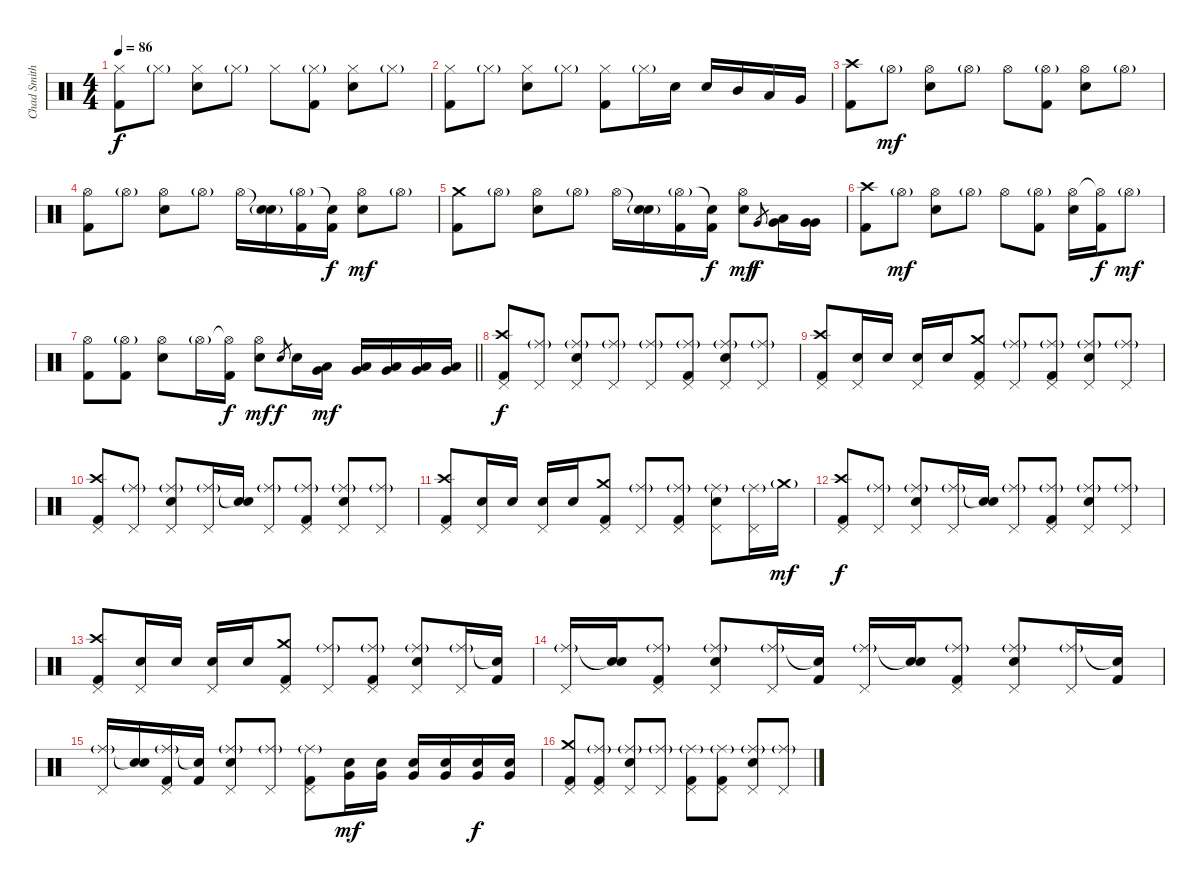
\track ("Chad Smith" "Chad Smith") {instrument percussion}
\staff {score}
\articulation defaults
\ts (4 4)
\tempo 86
\clef neutral
\ks c
("Hi-Hat (closed)" "Kick (hit) 2").8{dy f} "Hi-Hat (closed)"{g}.8 ("Hi-Hat (closed)" "Electric Snare (hit)").8 "Hi-Hat (closed)"{g}.8 "Hi-Hat (closed)".8 ("Hi-Hat (closed)"{g} "Kick (hit) 2").8 ("Hi-Hat (closed)" "Electric Snare (hit)").8 "Hi-Hat (closed)"{g}.8 |
("Hi-Hat (closed)" "Kick (hit) 2").8 "Hi-Hat (closed)"{g}.8 ("Hi-Hat (closed)" "Electric Snare (hit)").8 "Hi-Hat (closed)"{g}.8 ("Hi-Hat (closed)" "Kick (hit) 2").8 "Hi-Hat (closed)"{g}.16 "Electric Snare (hit)".16 "Electric Snare (hit)".16 "Mid Tom (hit)".16 "Low Tom (hit)".16 "Very Low Tom (hit)".16 |
("Crash high (hit)" "Kick (hit) 2").8 "Hi-Hat (open)"{g}.8{dy mf} ("Hi-Hat (open)" "Electric Snare (hit)").8 "Hi-Hat (open)"{g}.8 "Hi-Hat (open)".8 ("Hi-Hat (open)"{g} "Kick (hit) 2").8 ("Hi-Hat (open)" "Electric Snare (hit)").8 "Hi-Hat (open)"{g}.8 |
("Hi-Hat (open)" "Kick (hit) 2").8 "Hi-Hat (open)"{g}.8 ("Hi-Hat (open)" "Electric Snare (hit)").8 "Hi-Hat (open)"{g}.8 "Hi-Hat (open)".16 ("Snare (hit)"{t} "Electric Snare (hit)"{g}).16 ("Hi-Hat (open)"{g} "Kick (hit) 2").16 ("Snare (hit)"{t} "Kick (hit) 2").16{dy f} ("Hi-Hat (open)" "Electric Snare (hit)").8{dy mf} "Hi-Hat (open)"{g}.8 |
("Crash medium (hit)" "Kick (hit) 2").8 "Hi-Hat (open)"{g}.8 ("Hi-Hat (open)" "Electric Snare (hit)").8 "Hi-Hat (open)"{g}.8 "Hi-Hat (open)".16 ("Snare (hit)"{t} "Electric Snare (hit)"{g}).16 ("Hi-Hat (open)"{g} "Kick (hit) 2").16 ("Snare (hit)"{t} "Kick (hit) 2").16{dy f} ("Hi-Hat (open)" "Electric Snare (hit)").8{dy mf} "Very Low Tom (hit)".8{gr dy f} ("Very Low Tom (hit)" "Low Tom (hit)").16 ("Very Low Tom (hit)" "Very Low Tom (hit)").16 |
("Crash high (hit)" "Kick (hit) 2").8 "Hi-Hat (open)"{g}.8{dy mf} ("Hi-Hat (open)" "Electric Snare (hit)").8 "Hi-Hat (open)"{g}.8 "Hi-Hat (open)".8 ("Hi-Hat (open)"{g} "Kick (hit) 2").8 ("Hi-Hat (open)" "Electric Snare (hit)").16 ("Hi-Hat (open)"{t} "Kick (hit) 2").16{dy f} "Hi-Hat (open)"{g}.8{dy mf} |
\barLineRight lightlight
("Hi-Hat (open)" "Kick (hit) 2").8 ("Hi-Hat (open)"{g} "Kick (hit) 2").8 ("Hi-Hat (open)" "Electric Snare (hit)").8 "Hi-Hat (open)"{g}.16 ("Hi-Hat (open)"{t} "Kick (hit) 2").16{dy f} ("Hi-Hat (open)" "Electric Snare (hit)").8{dy mf} "Electric Snare (hit)".8{gr dy f} "Electric Snare (hit)".16 ("Very Low Tom (hit)" "Low Tom (hit)").16{dy mf} ("Very Low Tom (hit)" "Low Tom (hit)").16 ("Very Low Tom (hit)" "Low Tom (hit)").16 ("Very Low Tom (hit)" "Low Tom (hit)").16 ("Very Low Tom (hit)" "Low Tom (hit)").16 |
("Crash high (hit)" "Pedal Hi-Hat (hit)" "Kick (hit) 2").8{dy f} ("Ride (middle)"{g} "Pedal Hi-Hat (hit)").8 ("Ride (middle)"{g} "Pedal Hi-Hat (hit)" "Electric Snare (hit)").8 ("Ride (middle)"{g} "Pedal Hi-Hat (hit)").8 ("Ride (middle)"{g} "Pedal Hi-Hat (hit)").8 ("Ride (middle)"{g} "Pedal Hi-Hat (hit)" "Kick (hit) 2").8 ("Ride (middle)"{g} "Pedal Hi-Hat (hit)" "Electric Snare (hit)").8 ("Ride (middle)"{g} "Pedal Hi-Hat (hit)").8 |
("Crash high (hit)" "Pedal Hi-Hat (hit)" "Kick (hit) 2").8 ("Pedal Hi-Hat (hit)" "Electric Snare (hit)").16 "Electric Snare (hit)".16 ("Pedal Hi-Hat (hit)" "Electric Snare (hit)").16 "Electric Snare (hit)".16 ("Crash medium (hit)" "Pedal Hi-Hat (hit)" "Kick (hit) 2").8 ("Ride (middle)"{g} "Pedal Hi-Hat (hit)").8 ("Ride (middle)"{g} "Pedal Hi-Hat (hit)" "Kick (hit) 2").8 ("Ride (middle)"{g} "Pedal Hi-Hat (hit)" "Electric Snare (hit)").8 ("Ride (middle)"{g} "Pedal Hi-Hat (hit)").8 |
("Crash high (hit)" "Pedal Hi-Hat (hit)" "Kick (hit) 2").8 ("Ride (middle)"{g} "Pedal Hi-Hat (hit)").8 ("Ride (middle)"{g} "Pedal Hi-Hat (hit)" "Electric Snare (hit)").8 ("Ride (middle)"{g} "Pedal Hi-Hat (hit)").16 ("Snare (hit)"{t} "Electric Snare (hit)").16 ("Ride (middle)"{g} "Pedal Hi-Hat (hit)").8 ("Ride (middle)"{g} "Pedal Hi-Hat (hit)" "Kick (hit) 2").8 ("Ride (middle)"{g} "Pedal Hi-Hat (hit)" "Electric Snare (hit)").8 ("Ride (middle)"{g} "Pedal Hi-Hat (hit)").8 |
("Crash high (hit)" "Pedal Hi-Hat (hit)" "Kick (hit) 2").8 ("Pedal Hi-Hat (hit)" "Electric Snare (hit)").16 "Electric Snare (hit)".16 ("Pedal Hi-Hat (hit)" "Electric Snare (hit)").16 "Electric Snare (hit)".16 ("Crash medium (hit)" "Pedal Hi-Hat (hit)" "Kick (hit) 2").8 ("Ride (middle)"{g} "Pedal Hi-Hat (hit)").8 ("Ride (middle)"{g} "Pedal Hi-Hat (hit)" "Kick (hit) 2").8 ("Ride (middle)"{g} "Pedal Hi-Hat (hit)" "Electric Snare (hit)").8 ("Ride (middle)"{g} "Pedal Hi-Hat (hit)").16 "Crash medium (hit)"{g}.16{dy mf} |
("Crash high (hit)" "Pedal Hi-Hat (hit)" "Kick (hit) 2").8{dy f} ("Ride (middle)"{g} "Pedal Hi-Hat (hit)").8 ("Ride (middle)"{g} "Pedal Hi-Hat (hit)" "Electric Snare (hit)").8 ("Ride (middle)"{g} "Pedal Hi-Hat (hit)").16 ("Snare (hit)"{t} "Electric Snare (hit)").16 ("Ride (middle)"{g} "Pedal Hi-Hat (hit)").8 ("Ride (middle)"{g} "Pedal Hi-Hat (hit)" "Kick (hit) 2").8 ("Ride (middle)"{g} "Pedal Hi-Hat (hit)" "Electric Snare (hit)").8 ("Ride (middle)"{g} "Pedal Hi-Hat (hit)").8 |
("Crash high (hit)" "Pedal Hi-Hat (hit)" "Kick (hit) 2").8 ("Pedal Hi-Hat (hit)" "Electric Snare (hit)").16 "Electric Snare (hit)".16 ("Pedal Hi-Hat (hit)" "Electric Snare (hit)").16 "Electric Snare (hit)".16 ("Crash medium (hit)" "Pedal Hi-Hat (hit)" "Kick (hit) 2").8 ("Ride (middle)"{g} "Pedal Hi-Hat (hit)").8 ("Ride (middle)"{g} "Pedal Hi-Hat (hit)" "Kick (hit) 2").8 ("Ride (middle)"{g} "Pedal Hi-Hat (hit)" "Electric Snare (hit)").8 ("Ride (middle)"{g} "Pedal Hi-Hat (hit)").16 ("Snare (hit)"{t} "Kick (hit) 2").16 |
("Ride (middle)"{g} "Pedal Hi-Hat (hit)").16 ("Snare (hit)"{t} "Electric Snare (hit)").16 ("Ride (middle)"{g} "Pedal Hi-Hat (hit)" "Kick (hit) 2").8 ("Ride (middle)"{g} "Pedal Hi-Hat (hit)" "Electric Snare (hit)").8 ("Ride (middle)"{g} "Pedal Hi-Hat (hit)").16 ("Snare (hit)"{t} "Kick (hit) 2").16 ("Ride (middle)"{g} "Pedal Hi-Hat (hit)").16 ("Snare (hit)"{t} "Electric Snare (hit)").16 ("Ride (middle)"{g} "Pedal Hi-Hat (hit)" "Kick (hit) 2").8 ("Ride (middle)"{g} "Pedal Hi-Hat (hit)" "Electric Snare (hit)").8 ("Ride (middle)"{g} "Pedal Hi-Hat (hit)").16 ("Snare (hit)"{t} "Kick (hit) 2").16 |
("Ride (middle)"{g} "Pedal Hi-Hat (hit)").16 ("Snare (hit)"{t} "Electric Snare (hit)").16 ("Ride (middle)"{g} "Pedal Hi-Hat (hit)" "Kick (hit) 2").16 ("Snare (hit)"{t} "Kick (hit) 2").16 ("Ride (middle)"{g} "Pedal Hi-Hat (hit)" "Electric Snare (hit)").8 ("Ride (middle)"{g} "Pedal Hi-Hat (hit)").8 ("Ride (middle)"{g} "Pedal Hi-Hat (hit)" "Kick (hit) 2").8 ("Electric Snare (hit)" "Very Low Tom (hit)").16{dy mf} ("Electric Snare (hit)" "Very Low Tom (hit)").16 ("Electric Snare (hit)" "Very Low Tom (hit)").16 ("Electric Snare (hit)" "Very Low Tom (hit)").16 ("Electric Snare (hit)" "Very Low Tom (hit)").16{dy f} ("Electric Snare (hit)" "Very Low Tom (hit)").16 |
("Crash medium (hit)" "Pedal Hi-Hat (hit)" "Kick (hit) 2").8 ("Ride (middle)"{g} "Pedal Hi-Hat (hit)" "Kick (hit) 2").8 ("Ride (middle)"{g} "Pedal Hi-Hat (hit)" "Electric Snare (hit)").8 ("Ride (middle)"{g} "Pedal Hi-Hat (hit)").8 ("Ride (middle)"{g} "Pedal Hi-Hat (hit)" "Kick (hit) 2").8 ("Ride (middle)"{g} "Pedal Hi-Hat (hit)" "Kick (hit) 2").8 ("Ride (middle)"{g} "Pedal Hi-Hat (hit)" "Electric Snare (hit)").8 ("Ride (middle)"{g} "Pedal Hi-Hat (hit)").8
